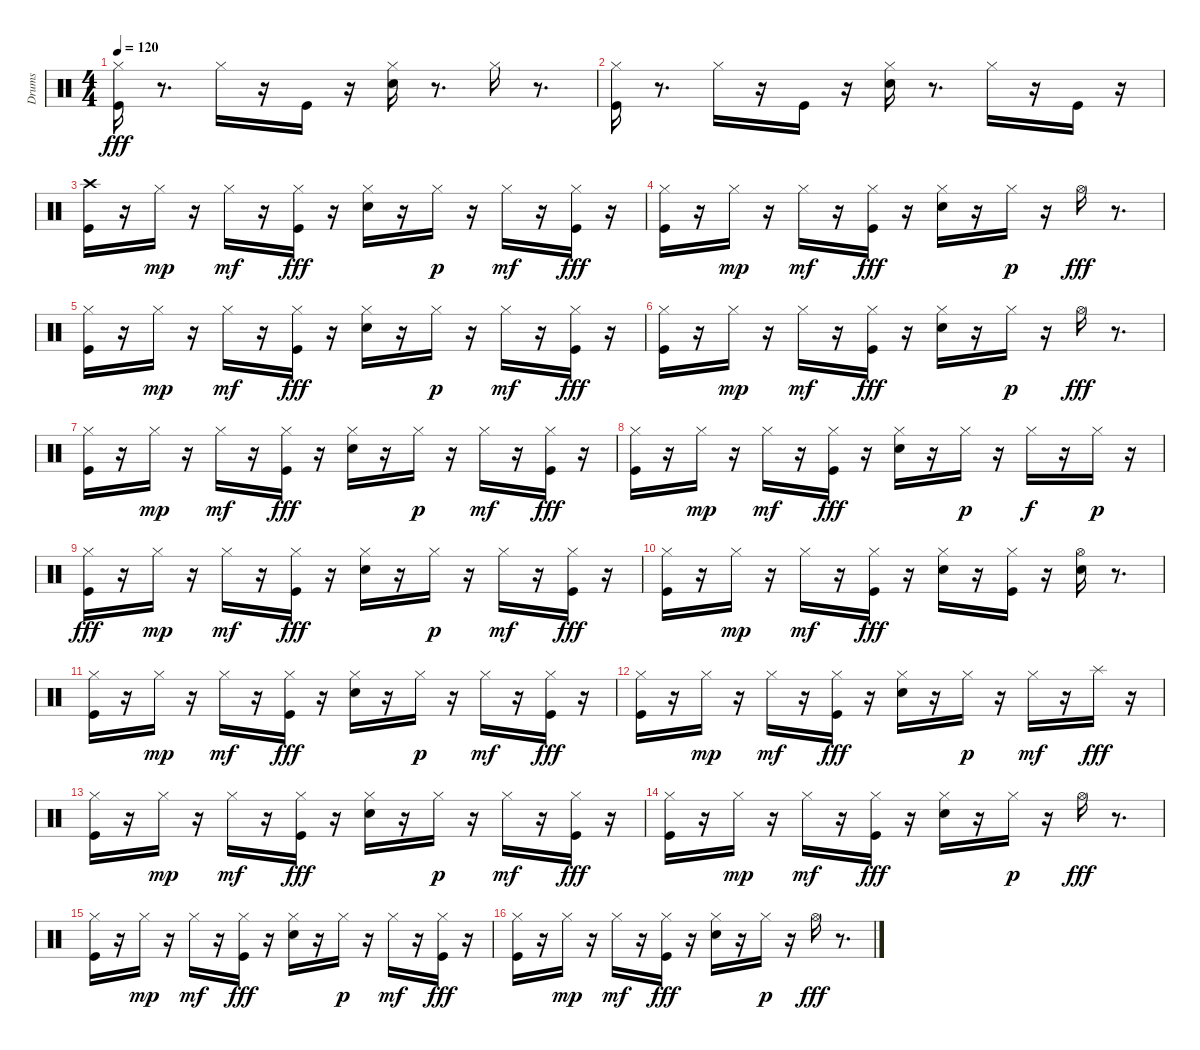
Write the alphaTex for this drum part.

\track ("Drums" "Drums") {instrument percussion}
\staff {score}
\articulation defaults
\ts (4 4)
\tempo 120
\clef neutral
\ks c
("Kick (hit)" "Hi-Hat (closed)").16{dy fff} r.8{d} "Hi-Hat (closed)".16 r.16 "Kick (hit)".16 r.16 ("Snare (hit) 2" "Hi-Hat (closed)").16 r.8{d} "Hi-Hat (closed)".16 r.8{d} |
("Hi-Hat (closed)" "Kick (hit)").16 r.8{d} "Hi-Hat (closed)".16 r.16 "Kick (hit)".16 r.16 ("Hi-Hat (closed)" "Snare (hit) 2").16 r.8{d} "Hi-Hat (closed)".16 r.16 "Kick (hit)".16 r.16 |
("Crash high (hit)" "Kick (hit)").16 r.16 "Hi-Hat (closed)".16{dy mp} r.16 "Hi-Hat (closed)".16{dy mf} r.16 ("Hi-Hat (closed)" "Kick (hit)").16{dy fff} r.16 ("Hi-Hat (closed)" "Snare (hit) 2").16 r.16 "Hi-Hat (closed)".16{dy p} r.16 "Hi-Hat (closed)".16{dy mf} r.16 ("Hi-Hat (closed)" "Kick (hit)").16{dy fff} r.16 |
("Hi-Hat (closed)" "Kick (hit)").16 r.16 "Hi-Hat (closed)".16{dy mp} r.16 "Hi-Hat (closed)".16{dy mf} r.16 ("Hi-Hat (closed)" "Kick (hit)").16{dy fff} r.16 ("Hi-Hat (closed)" "Snare (hit) 2").16 r.16 "Hi-Hat (closed)".16{dy p} r.16 "Hi-Hat (open)".16{dy fff} r.8{d} |
("Hi-Hat (closed)" "Kick (hit)").16 r.16 "Hi-Hat (closed)".16{dy mp} r.16 "Hi-Hat (closed)".16{dy mf} r.16 ("Hi-Hat (closed)" "Kick (hit)").16{dy fff} r.16 ("Hi-Hat (closed)" "Snare (hit) 2").16 r.16 "Hi-Hat (closed)".16{dy p} r.16 "Hi-Hat (closed)".16{dy mf} r.16 ("Hi-Hat (closed)" "Kick (hit)").16{dy fff} r.16 |
("Hi-Hat (closed)" "Kick (hit)").16 r.16 "Hi-Hat (closed)".16{dy mp} r.16 "Hi-Hat (closed)".16{dy mf} r.16 ("Hi-Hat (closed)" "Kick (hit)").16{dy fff} r.16 ("Hi-Hat (closed)" "Snare (hit) 2").16 r.16 "Hi-Hat (closed)".16{dy p} r.16 "Hi-Hat (open)".16{dy fff} r.8{d} |
("Hi-Hat (closed)" "Kick (hit)").16 r.16 "Hi-Hat (closed)".16{dy mp} r.16 "Hi-Hat (closed)".16{dy mf} r.16 ("Hi-Hat (closed)" "Kick (hit)").16{dy fff} r.16 ("Hi-Hat (closed)" "Snare (hit) 2").16 r.16 "Hi-Hat (closed)".16{dy p} r.16 "Hi-Hat (closed)".16{dy mf} r.16 ("Hi-Hat (closed)" "Kick (hit)").16{dy fff} r.16 |
("Hi-Hat (closed)" "Kick (hit)").16 r.16 "Hi-Hat (closed)".16{dy mp} r.16 "Hi-Hat (closed)".16{dy mf} r.16 ("Hi-Hat (closed)" "Kick (hit)").16{dy fff} r.16 ("Hi-Hat (closed)" "Snare (hit) 2").16 r.16 "Hi-Hat (closed)".16{dy p} r.16 "Hi-Hat (closed)".16{dy f} r.16 "Hi-Hat (closed)".16{dy p} r.16 |
("Hi-Hat (closed)" "Kick (hit)").16{dy fff} r.16 "Hi-Hat (closed)".16{dy mp} r.16 "Hi-Hat (closed)".16{dy mf} r.16 ("Hi-Hat (closed)" "Kick (hit)").16{dy fff} r.16 ("Hi-Hat (closed)" "Snare (hit) 2").16 r.16 "Hi-Hat (closed)".16{dy p} r.16 "Hi-Hat (closed)".16{dy mf} r.16 ("Hi-Hat (closed)" "Kick (hit)").16{dy fff} r.16 |
("Hi-Hat (closed)" "Kick (hit)").16 r.16 "Hi-Hat (closed)".16{dy mp} r.16 "Hi-Hat (closed)".16{dy mf} r.16 ("Hi-Hat (closed)" "Kick (hit)").16{dy fff} r.16 ("Hi-Hat (closed)" "Snare (hit) 2").16 r.16 ("Hi-Hat (closed)" "Kick (hit)").16 r.16 ("Snare (hit) 2" "Hi-Hat (open)").16 r.8{d} |
("Hi-Hat (closed)" "Kick (hit)").16 r.16 "Hi-Hat (closed)".16{dy mp} r.16 "Hi-Hat (closed)".16{dy mf} r.16 ("Hi-Hat (closed)" "Kick (hit)").16{dy fff} r.16 ("Hi-Hat (closed)" "Snare (hit) 2").16 r.16 "Hi-Hat (closed)".16{dy p} r.16 "Hi-Hat (closed)".16{dy mf} r.16 ("Hi-Hat (closed)" "Kick (hit)").16{dy fff} r.16 |
("Hi-Hat (closed)" "Kick (hit)").16 r.16 "Hi-Hat (closed)".16{dy mp} r.16 "Hi-Hat (closed)".16{dy mf} r.16 ("Hi-Hat (closed)" "Kick (hit)").16{dy fff} r.16 ("Hi-Hat (closed)" "Snare (hit) 2").16 r.16 "Hi-Hat (closed)".16{dy p} r.16 "Hi-Hat (closed)".16{dy mf} r.16 "Splash (hit)".16{dy fff} r.16 |
("Hi-Hat (closed)" "Kick (hit)").16 r.16 "Hi-Hat (closed)".16{dy mp} r.16 "Hi-Hat (closed)".16{dy mf} r.16 ("Hi-Hat (closed)" "Kick (hit)").16{dy fff} r.16 ("Hi-Hat (closed)" "Snare (hit) 2").16 r.16 "Hi-Hat (closed)".16{dy p} r.16 "Hi-Hat (closed)".16{dy mf} r.16 ("Hi-Hat (closed)" "Kick (hit)").16{dy fff} r.16 |
("Hi-Hat (closed)" "Kick (hit)").16 r.16 "Hi-Hat (closed)".16{dy mp} r.16 "Hi-Hat (closed)".16{dy mf} r.16 ("Hi-Hat (closed)" "Kick (hit)").16{dy fff} r.16 ("Hi-Hat (closed)" "Snare (hit) 2").16 r.16 "Hi-Hat (closed)".16{dy p} r.16 "Hi-Hat (open)".16{dy fff} r.8{d} |
("Hi-Hat (closed)" "Kick (hit)").16 r.16 "Hi-Hat (closed)".16{dy mp} r.16 "Hi-Hat (closed)".16{dy mf} r.16 ("Hi-Hat (closed)" "Kick (hit)").16{dy fff} r.16 ("Hi-Hat (closed)" "Snare (hit) 2").16 r.16 "Hi-Hat (closed)".16{dy p} r.16 "Hi-Hat (closed)".16{dy mf} r.16 ("Hi-Hat (closed)" "Kick (hit)").16{dy fff} r.16 |
("Hi-Hat (closed)" "Kick (hit)").16 r.16 "Hi-Hat (closed)".16{dy mp} r.16 "Hi-Hat (closed)".16{dy mf} r.16 ("Hi-Hat (closed)" "Kick (hit)").16{dy fff} r.16 ("Hi-Hat (closed)" "Snare (hit) 2").16 r.16 "Hi-Hat (closed)".16{dy p} r.16 "Hi-Hat (open)".16{dy fff} r.8{d}
